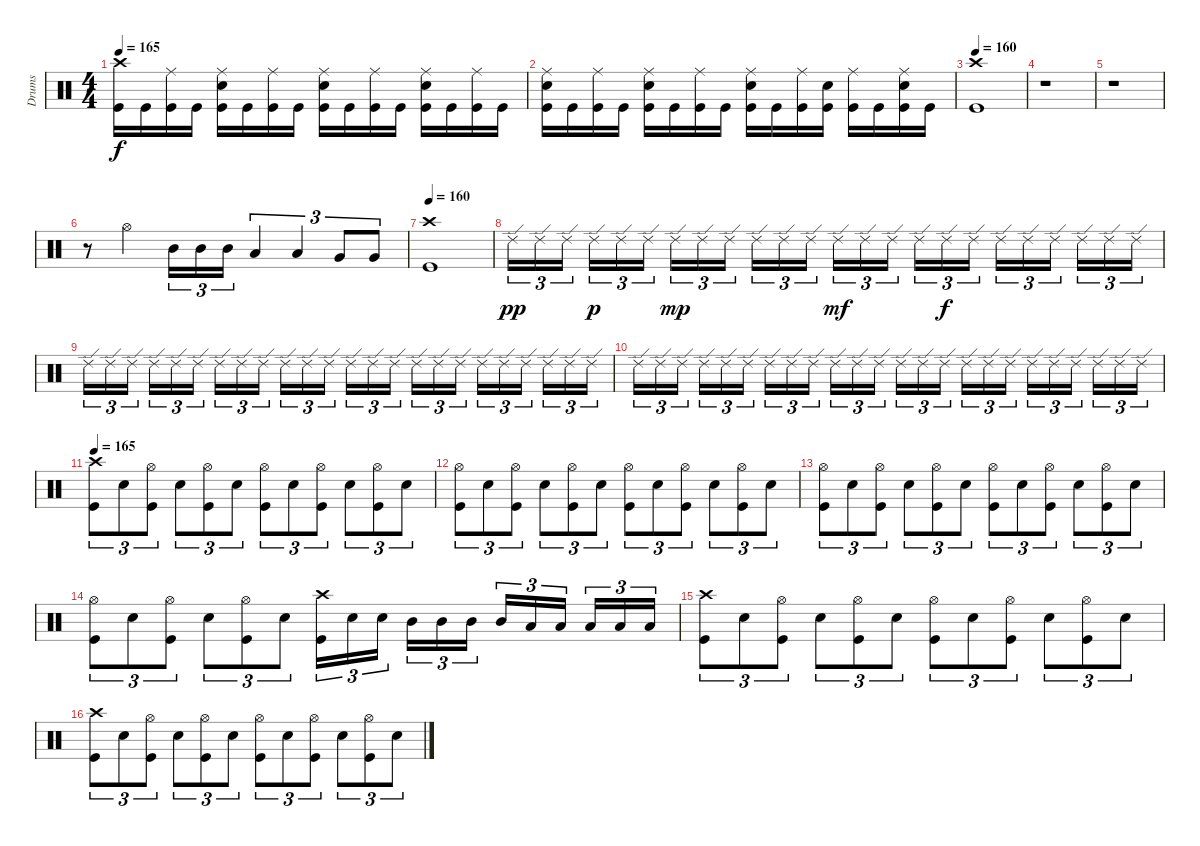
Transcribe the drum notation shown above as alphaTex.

\track ("Drums" "Drums") {instrument percussion}
\staff {score}
\articulation defaults
\ts (4 4)
\tempo 165
\clef neutral
\ks c
("Crash high (hit)" "Kick (hit)").16{dy f} "Kick (hit)".16 ("Ride (middle)" "Kick (hit)").16 "Kick (hit)".16 ("Ride (middle)" "Electric Snare (hit)" "Kick (hit)").16 "Kick (hit)".16 ("Ride (middle)" "Kick (hit)").16 "Kick (hit)".16 ("Ride (middle)" "Electric Snare (hit)" "Kick (hit)").16 "Kick (hit)".16 ("Ride (middle)" "Kick (hit)").16 "Kick (hit)".16 ("Ride (middle)" "Electric Snare (hit)" "Kick (hit)").16 "Kick (hit)".16 ("Ride (middle)" "Kick (hit)").16 "Kick (hit)".16 |
("Ride (middle)" "Electric Snare (hit)" "Kick (hit)").16 "Kick (hit)".16 ("Ride (middle)" "Kick (hit)").16 "Kick (hit)".16 ("Ride (middle)" "Electric Snare (hit)" "Kick (hit)").16 "Kick (hit)".16 ("Ride (middle)" "Kick (hit)").16 "Kick (hit)".16 ("Ride (middle)" "Electric Snare (hit)" "Kick (hit)").16 "Kick (hit)".16 ("Ride (middle)" "Kick (hit)").16 ("Electric Snare (hit)" "Kick (hit)").16 ("Ride (middle)" "Kick (hit)").16 "Kick (hit)".16 ("Ride (middle)" "Electric Snare (hit)" "Kick (hit)").16 "Kick (hit)".16 |
\tempo 160
("Crash high (hit)" "Kick (hit)").1 |
r.1 |
r.1 |
r.8 "Hi-Hat (open)".4 "Mid Tom (hit)".16{tu (3 2)} "Mid Tom (hit)".16{tu (3 2)} "Mid Tom (hit)".16{tu (3 2)} "Low Tom (hit)".4{tu (3 2)} "Low Tom (hit)".4{tu (3 2)} "Very Low Tom (hit)".8{tu (3 2)} "Very Low Tom (hit)".8{tu (3 2)} |
\tempo 160
("Crash high (hit)" "Kick (hit)").1 |
"Ride (edge) 2".16{tu (3 2) dy pp} "Ride (edge) 2".16{tu (3 2)} "Ride (edge) 2".16{tu (3 2)} "Ride (edge) 2".16{tu (3 2) dy p} "Ride (edge) 2".16{tu (3 2)} "Ride (edge) 2".16{tu (3 2)} "Ride (edge) 2".16{tu (3 2) dy mp} "Ride (edge) 2".16{tu (3 2)} "Ride (edge) 2".16{tu (3 2)} "Ride (edge) 2".16{tu (3 2)} "Ride (edge) 2".16{tu (3 2)} "Ride (edge) 2".16{tu (3 2)} "Ride (edge) 2".16{tu (3 2) dy mf} "Ride (edge) 2".16{tu (3 2)} "Ride (edge) 2".16{tu (3 2)} "Ride (edge) 2".16{tu (3 2)} "Ride (edge) 2".16{tu (3 2) dy f} "Ride (edge) 2".16{tu (3 2)} "Ride (edge) 2".16{tu (3 2)} "Ride (edge) 2".16{tu (3 2)} "Ride (edge) 2".16{tu (3 2)} "Ride (edge) 2".16{tu (3 2)} "Ride (edge) 2".16{tu (3 2)} "Ride (edge) 2".16{tu (3 2)} |
"Ride (edge) 2".16{tu (3 2)} "Ride (edge) 2".16{tu (3 2)} "Ride (edge) 2".16{tu (3 2)} "Ride (edge) 2".16{tu (3 2)} "Ride (edge) 2".16{tu (3 2)} "Ride (edge) 2".16{tu (3 2)} "Ride (edge) 2".16{tu (3 2)} "Ride (edge) 2".16{tu (3 2)} "Ride (edge) 2".16{tu (3 2)} "Ride (edge) 2".16{tu (3 2)} "Ride (edge) 2".16{tu (3 2)} "Ride (edge) 2".16{tu (3 2)} "Ride (edge) 2".16{tu (3 2)} "Ride (edge) 2".16{tu (3 2)} "Ride (edge) 2".16{tu (3 2)} "Ride (edge) 2".16{tu (3 2)} "Ride (edge) 2".16{tu (3 2)} "Ride (edge) 2".16{tu (3 2)} "Ride (edge) 2".16{tu (3 2)} "Ride (edge) 2".16{tu (3 2)} "Ride (edge) 2".16{tu (3 2)} "Ride (edge) 2".16{tu (3 2)} "Ride (edge) 2".16{tu (3 2)} "Ride (edge) 2".16{tu (3 2)} |
"Ride (edge) 2".16{tu (3 2)} "Ride (edge) 2".16{tu (3 2)} "Ride (edge) 2".16{tu (3 2)} "Ride (edge) 2".16{tu (3 2)} "Ride (edge) 2".16{tu (3 2)} "Ride (edge) 2".16{tu (3 2)} "Ride (edge) 2".16{tu (3 2)} "Ride (edge) 2".16{tu (3 2)} "Ride (edge) 2".16{tu (3 2)} "Ride (edge) 2".16{tu (3 2)} "Ride (edge) 2".16{tu (3 2)} "Ride (edge) 2".16{tu (3 2)} "Ride (edge) 2".16{tu (3 2)} "Ride (edge) 2".16{tu (3 2)} "Ride (edge) 2".16{tu (3 2)} "Ride (edge) 2".16{tu (3 2)} "Ride (edge) 2".16{tu (3 2)} "Ride (edge) 2".16{tu (3 2)} "Ride (edge) 2".16{tu (3 2)} "Ride (edge) 2".16{tu (3 2)} "Ride (edge) 2".16{tu (3 2)} "Ride (edge) 2".16{tu (3 2)} "Ride (edge) 2".16{tu (3 2)} "Ride (edge) 2".16{tu (3 2)} |
\tempo 165
("Crash high (hit)" "Kick (hit)").8{tu (3 2)} "Electric Snare (hit)".8{tu (3 2)} ("Hi-Hat (open)" "Kick (hit)").8{tu (3 2)} "Electric Snare (hit)".8{tu (3 2)} ("Hi-Hat (open)" "Kick (hit)").8{tu (3 2)} "Electric Snare (hit)".8{tu (3 2)} ("Hi-Hat (open)" "Kick (hit)").8{tu (3 2)} "Electric Snare (hit)".8{tu (3 2)} ("Hi-Hat (open)" "Kick (hit)").8{tu (3 2)} "Electric Snare (hit)".8{tu (3 2)} ("Hi-Hat (open)" "Kick (hit)").8{tu (3 2)} "Electric Snare (hit)".8{tu (3 2)} |
("Hi-Hat (open)" "Kick (hit)").8{tu (3 2)} "Electric Snare (hit)".8{tu (3 2)} ("Hi-Hat (open)" "Kick (hit)").8{tu (3 2)} "Electric Snare (hit)".8{tu (3 2)} ("Hi-Hat (open)" "Kick (hit)").8{tu (3 2)} "Electric Snare (hit)".8{tu (3 2)} ("Hi-Hat (open)" "Kick (hit)").8{tu (3 2)} "Electric Snare (hit)".8{tu (3 2)} ("Hi-Hat (open)" "Kick (hit)").8{tu (3 2)} "Electric Snare (hit)".8{tu (3 2)} ("Hi-Hat (open)" "Kick (hit)").8{tu (3 2)} "Electric Snare (hit)".8{tu (3 2)} |
("Hi-Hat (open)" "Kick (hit)").8{tu (3 2)} "Electric Snare (hit)".8{tu (3 2)} ("Hi-Hat (open)" "Kick (hit)").8{tu (3 2)} "Electric Snare (hit)".8{tu (3 2)} ("Hi-Hat (open)" "Kick (hit)").8{tu (3 2)} "Electric Snare (hit)".8{tu (3 2)} ("Hi-Hat (open)" "Kick (hit)").8{tu (3 2)} "Electric Snare (hit)".8{tu (3 2)} ("Hi-Hat (open)" "Kick (hit)").8{tu (3 2)} "Electric Snare (hit)".8{tu (3 2)} ("Hi-Hat (open)" "Kick (hit)").8{tu (3 2)} "Electric Snare (hit)".8{tu (3 2)} |
("Hi-Hat (open)" "Kick (hit)").8{tu (3 2)} "Electric Snare (hit)".8{tu (3 2)} ("Hi-Hat (open)" "Kick (hit)").8{tu (3 2)} "Electric Snare (hit)".8{tu (3 2)} ("Hi-Hat (open)" "Kick (hit)").8{tu (3 2)} "Electric Snare (hit)".8{tu (3 2)} ("Crash high (hit)" "Kick (hit)").16{tu (3 2)} "Electric Snare (hit)".16{tu (3 2)} "Electric Snare (hit)".16{tu (3 2)} "Mid Tom (hit)".16{tu (3 2)} "Mid Tom (hit)".16{tu (3 2)} "Mid Tom (hit)".16{tu (3 2)} "Mid Tom (hit)".16{tu (3 2)} "Low Tom (hit)".16{tu (3 2)} "Low Tom (hit)".16{tu (3 2)} "Low Tom (hit)".16{tu (3 2)} "Low Tom (hit)".16{tu (3 2)} "Low Tom (hit)".16{tu (3 2)} |
("Crash high (hit)" "Kick (hit)").8{tu (3 2)} "Electric Snare (hit)".8{tu (3 2)} ("Hi-Hat (open)" "Kick (hit)").8{tu (3 2)} "Electric Snare (hit)".8{tu (3 2)} ("Hi-Hat (open)" "Kick (hit)").8{tu (3 2)} "Electric Snare (hit)".8{tu (3 2)} ("Hi-Hat (open)" "Kick (hit)").8{tu (3 2)} "Electric Snare (hit)".8{tu (3 2)} ("Hi-Hat (open)" "Kick (hit)").8{tu (3 2)} "Electric Snare (hit)".8{tu (3 2)} ("Hi-Hat (open)" "Kick (hit)").8{tu (3 2)} "Electric Snare (hit)".8{tu (3 2)} |
("Crash high (hit)" "Kick (hit)").8{tu (3 2)} "Electric Snare (hit)".8{tu (3 2)} ("Hi-Hat (open)" "Kick (hit)").8{tu (3 2)} "Electric Snare (hit)".8{tu (3 2)} ("Hi-Hat (open)" "Kick (hit)").8{tu (3 2)} "Electric Snare (hit)".8{tu (3 2)} ("Hi-Hat (open)" "Kick (hit)").8{tu (3 2)} "Electric Snare (hit)".8{tu (3 2)} ("Hi-Hat (open)" "Kick (hit)").8{tu (3 2)} "Electric Snare (hit)".8{tu (3 2)} ("Hi-Hat (open)" "Kick (hit)").8{tu (3 2)} "Electric Snare (hit)".8{tu (3 2)}
